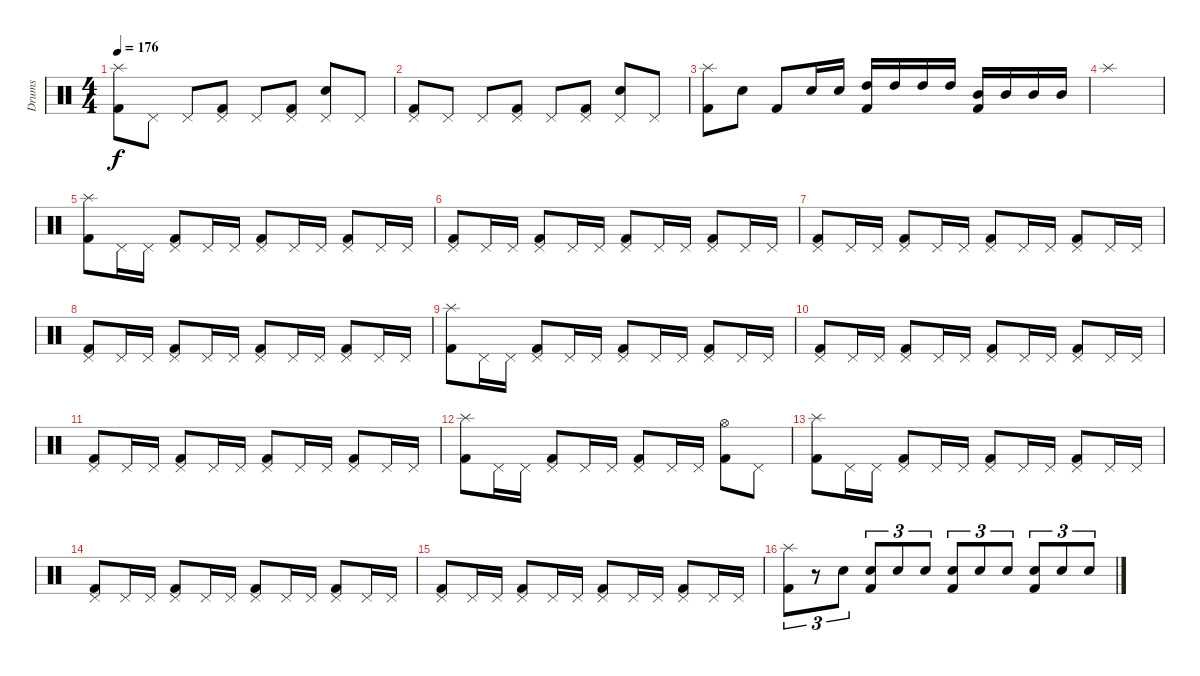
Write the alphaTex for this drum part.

\track ("Drums" "Drums") {instrument percussion}
\staff {score}
\articulation defaults
\ts (4 4)
\tempo 176
\clef neutral
\ks c
("Splash (hit)" "Kick (hit) 2").8{dy f} "Pedal Hi-Hat (hit)".8 "Pedal Hi-Hat (hit)".8 ("Kick (hit) 2" "Pedal Hi-Hat (hit)").8 "Pedal Hi-Hat (hit)".8 ("Pedal Hi-Hat (hit)" "Kick (hit) 2").8 ("Snare (hit) 2" "Pedal Hi-Hat (hit)").8 "Pedal Hi-Hat (hit)".8 |
("Pedal Hi-Hat (hit)" "Kick (hit) 2").8 "Pedal Hi-Hat (hit)".8 "Pedal Hi-Hat (hit)".8 ("Kick (hit) 2" "Pedal Hi-Hat (hit)").8 "Pedal Hi-Hat (hit)".8 ("Pedal Hi-Hat (hit)" "Kick (hit) 2").8 ("Snare (hit) 2" "Pedal Hi-Hat (hit)").8 "Pedal Hi-Hat (hit)".8 |
("Splash (hit)" "Kick (hit) 2").8 "Snare (hit) 2".8 "Kick (hit) 2".8 "Snare (hit) 2".16 "Snare (hit) 2".16 ("High Tom (hit)" "Kick (hit) 2").16 "High Tom (hit)".16 "High Tom (hit)".16 "High Tom (hit)".16 ("Kick (hit) 2" "Mid Tom (hit)").16 "Mid Tom (hit)".16 "Mid Tom (hit)".16 "Mid Tom (hit)".16 |
"Splash (hit)".1 |
("Splash (hit)" "Kick (hit) 2").8 "Pedal Hi-Hat (hit)".16 "Pedal Hi-Hat (hit)".16 ("Pedal Hi-Hat (hit)" "Kick (hit) 2").8 "Pedal Hi-Hat (hit)".16 "Pedal Hi-Hat (hit)".16 ("Pedal Hi-Hat (hit)" "Kick (hit) 2").8 "Pedal Hi-Hat (hit)".16 "Pedal Hi-Hat (hit)".16 ("Pedal Hi-Hat (hit)" "Kick (hit) 2").8 "Pedal Hi-Hat (hit)".16 "Pedal Hi-Hat (hit)".16 |
("Pedal Hi-Hat (hit)" "Kick (hit) 2").8 "Pedal Hi-Hat (hit)".16 "Pedal Hi-Hat (hit)".16 ("Pedal Hi-Hat (hit)" "Kick (hit) 2").8 "Pedal Hi-Hat (hit)".16 "Pedal Hi-Hat (hit)".16 ("Pedal Hi-Hat (hit)" "Kick (hit) 2").8 "Pedal Hi-Hat (hit)".16 "Pedal Hi-Hat (hit)".16 ("Pedal Hi-Hat (hit)" "Kick (hit) 2").8 "Pedal Hi-Hat (hit)".16 "Pedal Hi-Hat (hit)".16 |
("Pedal Hi-Hat (hit)" "Kick (hit) 2").8 "Pedal Hi-Hat (hit)".16 "Pedal Hi-Hat (hit)".16 ("Pedal Hi-Hat (hit)" "Kick (hit) 2").8 "Pedal Hi-Hat (hit)".16 "Pedal Hi-Hat (hit)".16 ("Pedal Hi-Hat (hit)" "Kick (hit) 2").8 "Pedal Hi-Hat (hit)".16 "Pedal Hi-Hat (hit)".16 ("Pedal Hi-Hat (hit)" "Kick (hit) 2").8 "Pedal Hi-Hat (hit)".16 "Pedal Hi-Hat (hit)".16 |
("Pedal Hi-Hat (hit)" "Kick (hit) 2").8 "Pedal Hi-Hat (hit)".16 "Pedal Hi-Hat (hit)".16 ("Pedal Hi-Hat (hit)" "Kick (hit) 2").8 "Pedal Hi-Hat (hit)".16 "Pedal Hi-Hat (hit)".16 ("Pedal Hi-Hat (hit)" "Kick (hit) 2").8 "Pedal Hi-Hat (hit)".16 "Pedal Hi-Hat (hit)".16 ("Pedal Hi-Hat (hit)" "Kick (hit) 2").8 "Pedal Hi-Hat (hit)".16 "Pedal Hi-Hat (hit)".16 |
("Splash (hit)" "Kick (hit) 2").8 "Pedal Hi-Hat (hit)".16 "Pedal Hi-Hat (hit)".16 ("Pedal Hi-Hat (hit)" "Kick (hit) 2").8 "Pedal Hi-Hat (hit)".16 "Pedal Hi-Hat (hit)".16 ("Pedal Hi-Hat (hit)" "Kick (hit) 2").8 "Pedal Hi-Hat (hit)".16 "Pedal Hi-Hat (hit)".16 ("Pedal Hi-Hat (hit)" "Kick (hit) 2").8 "Pedal Hi-Hat (hit)".16 "Pedal Hi-Hat (hit)".16 |
("Pedal Hi-Hat (hit)" "Kick (hit) 2").8 "Pedal Hi-Hat (hit)".16 "Pedal Hi-Hat (hit)".16 ("Pedal Hi-Hat (hit)" "Kick (hit) 2").8 "Pedal Hi-Hat (hit)".16 "Pedal Hi-Hat (hit)".16 ("Pedal Hi-Hat (hit)" "Kick (hit) 2").8 "Pedal Hi-Hat (hit)".16 "Pedal Hi-Hat (hit)".16 ("Pedal Hi-Hat (hit)" "Kick (hit) 2").8 "Pedal Hi-Hat (hit)".16 "Pedal Hi-Hat (hit)".16 |
("Pedal Hi-Hat (hit)" "Kick (hit) 2").8 "Pedal Hi-Hat (hit)".16 "Pedal Hi-Hat (hit)".16 ("Pedal Hi-Hat (hit)" "Kick (hit) 2").8 "Pedal Hi-Hat (hit)".16 "Pedal Hi-Hat (hit)".16 ("Pedal Hi-Hat (hit)" "Kick (hit) 2").8 "Pedal Hi-Hat (hit)".16 "Pedal Hi-Hat (hit)".16 ("Pedal Hi-Hat (hit)" "Kick (hit) 2").8 "Pedal Hi-Hat (hit)".16 "Pedal Hi-Hat (hit)".16 |
("Splash (hit)" "Kick (hit) 2").8 "Pedal Hi-Hat (hit)".16 "Pedal Hi-Hat (hit)".16 ("Pedal Hi-Hat (hit)" "Kick (hit) 2").8 "Pedal Hi-Hat (hit)".16 "Pedal Hi-Hat (hit)".16 ("Pedal Hi-Hat (hit)" "Kick (hit) 2").8 "Pedal Hi-Hat (hit)".16 "Pedal Hi-Hat (hit)".16 ("Hi-Hat (open)" "Kick (hit) 2").8 "Pedal Hi-Hat (hit)".8 |
("Splash (hit)" "Kick (hit) 2").8 "Pedal Hi-Hat (hit)".16 "Pedal Hi-Hat (hit)".16 ("Pedal Hi-Hat (hit)" "Kick (hit) 2").8 "Pedal Hi-Hat (hit)".16 "Pedal Hi-Hat (hit)".16 ("Pedal Hi-Hat (hit)" "Kick (hit) 2").8 "Pedal Hi-Hat (hit)".16 "Pedal Hi-Hat (hit)".16 ("Pedal Hi-Hat (hit)" "Kick (hit) 2").8 "Pedal Hi-Hat (hit)".16 "Pedal Hi-Hat (hit)".16 |
("Pedal Hi-Hat (hit)" "Kick (hit) 2").8 "Pedal Hi-Hat (hit)".16 "Pedal Hi-Hat (hit)".16 ("Pedal Hi-Hat (hit)" "Kick (hit) 2").8 "Pedal Hi-Hat (hit)".16 "Pedal Hi-Hat (hit)".16 ("Pedal Hi-Hat (hit)" "Kick (hit) 2").8 "Pedal Hi-Hat (hit)".16 "Pedal Hi-Hat (hit)".16 ("Pedal Hi-Hat (hit)" "Kick (hit) 2").8 "Pedal Hi-Hat (hit)".16 "Pedal Hi-Hat (hit)".16 |
("Pedal Hi-Hat (hit)" "Kick (hit) 2").8 "Pedal Hi-Hat (hit)".16 "Pedal Hi-Hat (hit)".16 ("Pedal Hi-Hat (hit)" "Kick (hit) 2").8 "Pedal Hi-Hat (hit)".16 "Pedal Hi-Hat (hit)".16 ("Pedal Hi-Hat (hit)" "Kick (hit) 2").8 "Pedal Hi-Hat (hit)".16 "Pedal Hi-Hat (hit)".16 ("Pedal Hi-Hat (hit)" "Kick (hit) 2").8 "Pedal Hi-Hat (hit)".16 "Pedal Hi-Hat (hit)".16 |
("Splash (hit)" "Kick (hit) 2").8{tu (3 2)} r.8{tu (3 2)} "Snare (hit) 2".8{tu (3 2)} ("Snare (hit) 2" "Kick (hit) 2").8{tu (3 2)} "Snare (hit) 2".8{tu (3 2)} "Snare (hit) 2".8{tu (3 2)} ("Snare (hit) 2" "Kick (hit) 2").8{tu (3 2)} "Snare (hit) 2".8{tu (3 2)} "Snare (hit) 2".8{tu (3 2)} ("Snare (hit) 2" "Kick (hit) 2").8{tu (3 2)} "Snare (hit) 2".8{tu (3 2)} "Snare (hit) 2".8{tu (3 2)}
